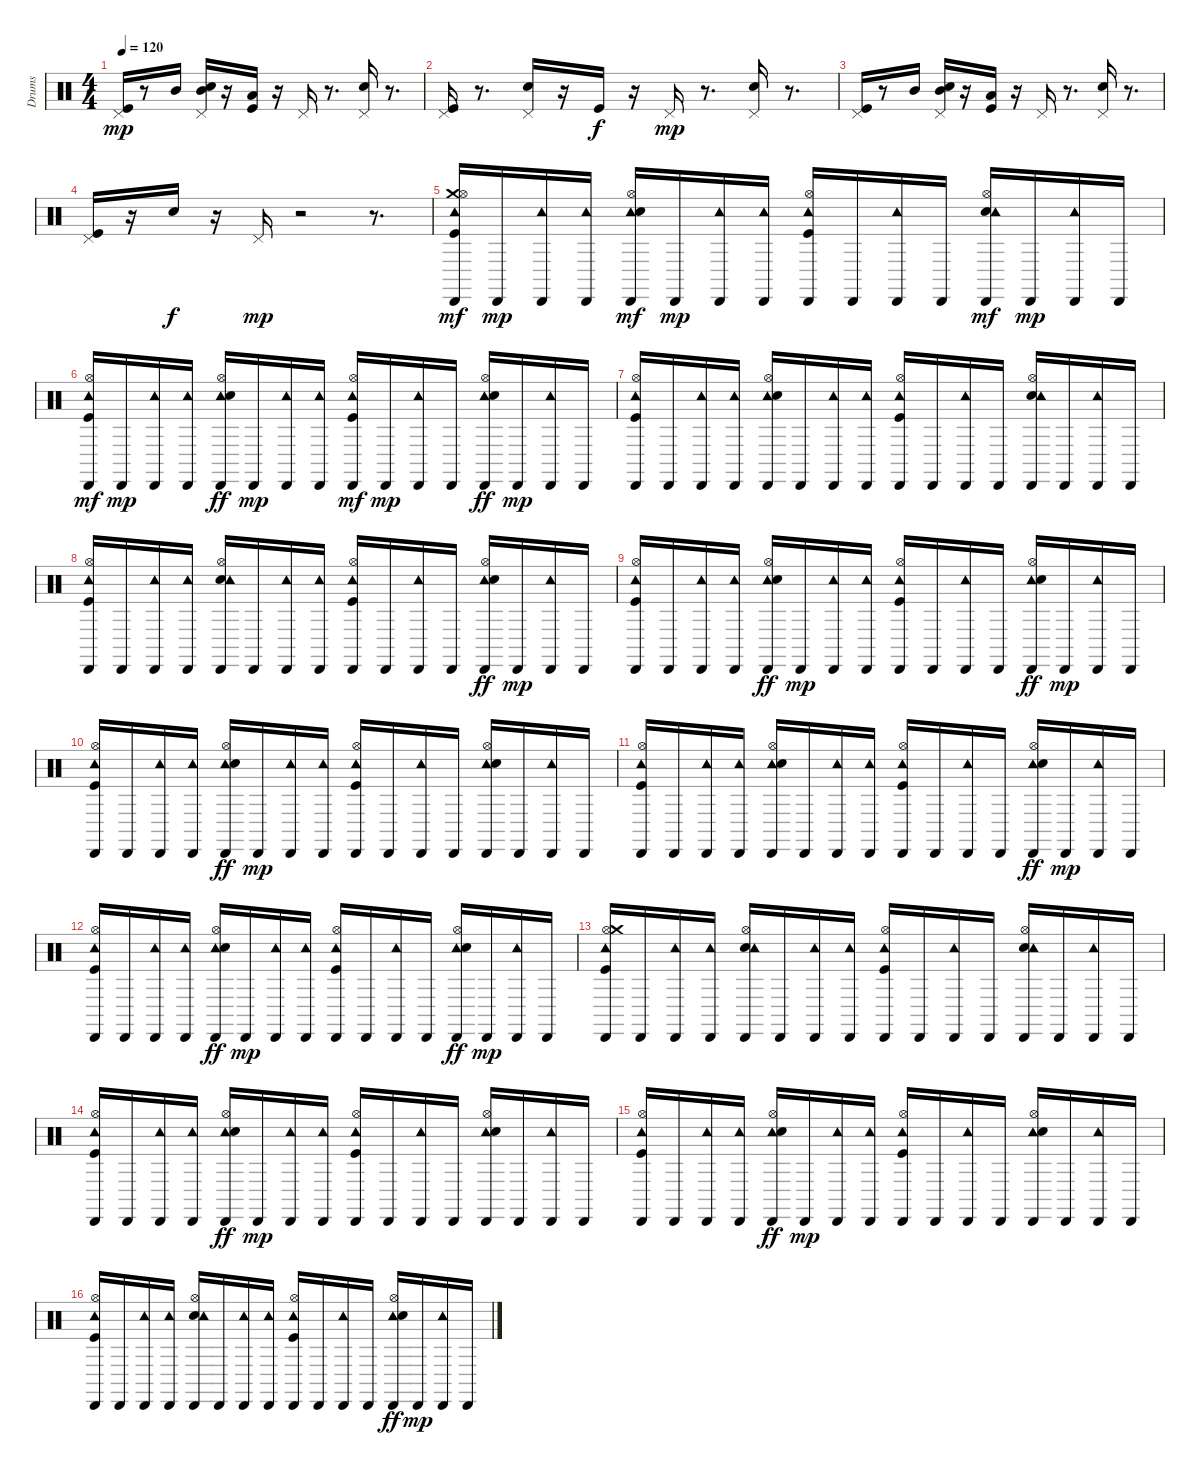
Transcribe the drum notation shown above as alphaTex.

\track ("Drums" "Drums") {instrument percussion}
\staff {score}
\articulation defaults
\ts (4 4)
\tempo 120
\clef neutral
\ks c
("Pedal Hi-Hat (hit)" "Kick (hit)").16{dy mp} r.8 "Mid Tom (hit)".16 ("Pedal Hi-Hat (hit)" "Hand Clap (hit)" "Mid Tom (hit)").16 r.16 ("Kick (hit)" "Low Floor Tom (hit)").16 r.16 "Pedal Hi-Hat (hit)".16 r.8{d} ("Pedal Hi-Hat (hit)" "Hand Clap (hit)").16 r.8{d} |
("Pedal Hi-Hat (hit)" "Kick (hit)").16 r.8{d} ("Pedal Hi-Hat (hit)" "Hand Clap (hit)").16 r.16 "Kick (hit)".16{dy f} r.16 "Pedal Hi-Hat (hit)".16{dy mp} r.8{d} ("Pedal Hi-Hat (hit)" "Hand Clap (hit)").16 r.8{d} |
("Pedal Hi-Hat (hit)" "Kick (hit)").16 r.8 "Mid Tom (hit)".16 ("Pedal Hi-Hat (hit)" "Hand Clap (hit)" "Mid Tom (hit)").16 r.16 ("Kick (hit)" "Low Floor Tom (hit)").16 r.16 "Pedal Hi-Hat (hit)".16 r.8{d} ("Pedal Hi-Hat (hit)" "Hand Clap (hit)").16 r.8{d} |
("Pedal Hi-Hat (hit)" "Kick (hit)").16 r.16 "Hand Clap (hit)".16{dy f} r.16 "Pedal Hi-Hat (hit)".16{dy mp} r.2 r.8{d} |
("Crash medium (hit)" "Tambourine (hit)" "Kick (hit)" "Cabasa (hit)" "Hi-Hat (open)").16{dy mf} "Cabasa (hit)".16{dy mp} ("Cabasa (hit)" "Tambourine (hit)").16 ("Cabasa (hit)" "Tambourine (hit)").16 ("Tambourine (hit)" "Electric Snare (hit)" "Cabasa (hit)" "Hi-Hat (open)").16{dy mf} "Cabasa (hit)".16{dy mp} ("Cabasa (hit)" "Tambourine (hit)").16 ("Tambourine (hit)" "Cabasa (hit)").16 ("Tambourine (hit)" "Hi-Hat (open)" "Cabasa (hit)" "Kick (hit)").16 "Cabasa (hit)".16 ("Cabasa (hit)" "Tambourine (hit)").16 "Cabasa (hit)".16 ("Cabasa (hit)" "Electric Snare (hit)" "Tambourine (hit)" "Hi-Hat (open)").16{dy mf} "Cabasa (hit)".16{dy mp} ("Cabasa (hit)" "Tambourine (hit)").16 "Cabasa (hit)".16 |
("Cabasa (hit)" "Kick (hit)" "Tambourine (hit)" "Hi-Hat (open)").16{dy mf} "Cabasa (hit)".16{dy mp} ("Cabasa (hit)" "Tambourine (hit)").16 ("Tambourine (hit)" "Cabasa (hit)").16 ("Cabasa (hit)" "Tambourine (hit)" "Hi-Hat (open)" "Electric Snare (hit)").16{dy ff} "Cabasa (hit)".16{dy mp} ("Tambourine (hit)" "Cabasa (hit)").16 ("Tambourine (hit)" "Cabasa (hit)").16 ("Cabasa (hit)" "Hi-Hat (open)" "Kick (hit)" "Tambourine (hit)").16{dy mf} "Cabasa (hit)".16{dy mp} ("Cabasa (hit)" "Tambourine (hit)").16 "Cabasa (hit)".16 ("Tambourine (hit)" "Cabasa (hit)" "Hi-Hat (open)" "Electric Snare (hit)").16{dy ff} "Cabasa (hit)".16{dy mp} ("Cabasa (hit)" "Tambourine (hit)").16 "Cabasa (hit)".16 |
("Tambourine (hit)" "Cabasa (hit)" "Hi-Hat (open)" "Kick (hit)").16 "Cabasa (hit)".16 ("Cabasa (hit)" "Tambourine (hit)").16 ("Cabasa (hit)" "Tambourine (hit)").16 ("Cabasa (hit)" "Tambourine (hit)" "Electric Snare (hit)" "Hi-Hat (open)").16 "Cabasa (hit)".16 ("Cabasa (hit)" "Tambourine (hit)").16 ("Tambourine (hit)" "Cabasa (hit)").16 ("Hi-Hat (open)" "Cabasa (hit)" "Tambourine (hit)" "Kick (hit)").16 "Cabasa (hit)".16 ("Cabasa (hit)" "Tambourine (hit)").16 "Cabasa (hit)".16 ("Electric Snare (hit)" "Hi-Hat (open)" "Cabasa (hit)" "Tambourine (hit)").16 "Cabasa (hit)".16 ("Cabasa (hit)" "Tambourine (hit)").16 "Cabasa (hit)".16 |
("Cabasa (hit)" "Hi-Hat (open)" "Kick (hit)" "Tambourine (hit)").16 "Cabasa (hit)".16 ("Cabasa (hit)" "Tambourine (hit)").16 ("Tambourine (hit)" "Cabasa (hit)").16 ("Hi-Hat (open)" "Electric Snare (hit)" "Cabasa (hit)" "Tambourine (hit)").16 "Cabasa (hit)".16 ("Tambourine (hit)" "Cabasa (hit)").16 ("Cabasa (hit)" "Tambourine (hit)").16 ("Hi-Hat (open)" "Cabasa (hit)" "Tambourine (hit)" "Kick (hit)").16 "Cabasa (hit)".16 ("Tambourine (hit)" "Cabasa (hit)").16 "Cabasa (hit)".16 ("Cabasa (hit)" "Tambourine (hit)" "Hi-Hat (open)" "Electric Snare (hit)").16{dy ff} "Cabasa (hit)".16{dy mp} ("Tambourine (hit)" "Cabasa (hit)").16 "Cabasa (hit)".16 |
("Hi-Hat (open)" "Tambourine (hit)" "Cabasa (hit)" "Kick (hit)").16 "Cabasa (hit)".16 ("Tambourine (hit)" "Cabasa (hit)").16 ("Tambourine (hit)" "Cabasa (hit)").16 ("Cabasa (hit)" "Hi-Hat (open)" "Tambourine (hit)" "Electric Snare (hit)").16{dy ff} "Cabasa (hit)".16{dy mp} ("Tambourine (hit)" "Cabasa (hit)").16 ("Tambourine (hit)" "Cabasa (hit)").16 ("Hi-Hat (open)" "Kick (hit)" "Cabasa (hit)" "Tambourine (hit)").16 "Cabasa (hit)".16 ("Tambourine (hit)" "Cabasa (hit)").16 "Cabasa (hit)".16 ("Hi-Hat (open)" "Cabasa (hit)" "Tambourine (hit)" "Electric Snare (hit)").16{dy ff} "Cabasa (hit)".16{dy mp} ("Cabasa (hit)" "Tambourine (hit)").16 "Cabasa (hit)".16 |
("Tambourine (hit)" "Kick (hit)" "Cabasa (hit)" "Hi-Hat (open)").16 "Cabasa (hit)".16 ("Tambourine (hit)" "Cabasa (hit)").16 ("Cabasa (hit)" "Tambourine (hit)").16 ("Cabasa (hit)" "Tambourine (hit)" "Hi-Hat (open)" "Electric Snare (hit)").16{dy ff} "Cabasa (hit)".16{dy mp} ("Cabasa (hit)" "Tambourine (hit)").16 ("Tambourine (hit)" "Cabasa (hit)").16 ("Cabasa (hit)" "Hi-Hat (open)" "Tambourine (hit)" "Kick (hit)").16 "Cabasa (hit)".16 ("Tambourine (hit)" "Cabasa (hit)").16 "Cabasa (hit)".16 ("Cabasa (hit)" "Tambourine (hit)" "Electric Snare (hit)" "Hi-Hat (open)").16 "Cabasa (hit)".16 ("Tambourine (hit)" "Cabasa (hit)").16 "Cabasa (hit)".16 |
("Tambourine (hit)" "Kick (hit)" "Cabasa (hit)" "Hi-Hat (open)").16 "Cabasa (hit)".16 ("Cabasa (hit)" "Tambourine (hit)").16 ("Tambourine (hit)" "Cabasa (hit)").16 ("Tambourine (hit)" "Electric Snare (hit)" "Cabasa (hit)" "Hi-Hat (open)").16 "Cabasa (hit)".16 ("Cabasa (hit)" "Tambourine (hit)").16 ("Tambourine (hit)" "Cabasa (hit)").16 ("Tambourine (hit)" "Cabasa (hit)" "Hi-Hat (open)" "Kick (hit)").16 "Cabasa (hit)".16 ("Cabasa (hit)" "Tambourine (hit)").16 "Cabasa (hit)".16 ("Tambourine (hit)" "Cabasa (hit)" "Hi-Hat (open)" "Electric Snare (hit)").16{dy ff} "Cabasa (hit)".16{dy mp} ("Cabasa (hit)" "Tambourine (hit)").16 "Cabasa (hit)".16 |
("Kick (hit)" "Hi-Hat (open)" "Cabasa (hit)" "Tambourine (hit)").16 "Cabasa (hit)".16 ("Tambourine (hit)" "Cabasa (hit)").16 ("Tambourine (hit)" "Cabasa (hit)").16 ("Cabasa (hit)" "Tambourine (hit)" "Hi-Hat (open)" "Electric Snare (hit)").16{dy ff} "Cabasa (hit)".16{dy mp} ("Cabasa (hit)" "Tambourine (hit)").16 ("Tambourine (hit)" "Cabasa (hit)").16 ("Cabasa (hit)" "Hi-Hat (open)" "Kick (hit)" "Tambourine (hit)").16 "Cabasa (hit)".16 ("Tambourine (hit)" "Cabasa (hit)").16 "Cabasa (hit)".16 ("Tambourine (hit)" "Cabasa (hit)" "Hi-Hat (open)" "Electric Snare (hit)").16{dy ff} "Cabasa (hit)".16{dy mp} ("Tambourine (hit)" "Cabasa (hit)").16 "Cabasa (hit)".16 |
("Kick (hit)" "Cabasa (hit)" "Hi-Hat (open)" "Tambourine (hit)" "Crash medium (hit)").16 "Cabasa (hit)".16 ("Tambourine (hit)" "Cabasa (hit)").16 ("Cabasa (hit)" "Tambourine (hit)").16 ("Hi-Hat (open)" "Electric Snare (hit)" "Cabasa (hit)" "Tambourine (hit)").16 "Cabasa (hit)".16 ("Cabasa (hit)" "Tambourine (hit)").16 ("Cabasa (hit)" "Tambourine (hit)").16 ("Hi-Hat (open)" "Cabasa (hit)" "Kick (hit)" "Tambourine (hit)").16 "Cabasa (hit)".16 ("Tambourine (hit)" "Cabasa (hit)").16 "Cabasa (hit)".16 ("Cabasa (hit)" "Electric Snare (hit)" "Hi-Hat (open)" "Tambourine (hit)").16 "Cabasa (hit)".16 ("Tambourine (hit)" "Cabasa (hit)").16 "Cabasa (hit)".16 |
("Hi-Hat (open)" "Tambourine (hit)" "Cabasa (hit)" "Kick (hit)").16 "Cabasa (hit)".16 ("Tambourine (hit)" "Cabasa (hit)").16 ("Tambourine (hit)" "Cabasa (hit)").16 ("Hi-Hat (open)" "Cabasa (hit)" "Tambourine (hit)" "Electric Snare (hit)").16{dy ff} "Cabasa (hit)".16{dy mp} ("Cabasa (hit)" "Tambourine (hit)").16 ("Cabasa (hit)" "Tambourine (hit)").16 ("Cabasa (hit)" "Tambourine (hit)" "Kick (hit)" "Hi-Hat (open)").16 "Cabasa (hit)".16 ("Tambourine (hit)" "Cabasa (hit)").16 "Cabasa (hit)".16 ("Tambourine (hit)" "Electric Snare (hit)" "Cabasa (hit)" "Hi-Hat (open)").16 "Cabasa (hit)".16 ("Tambourine (hit)" "Cabasa (hit)").16 "Cabasa (hit)".16 |
("Tambourine (hit)" "Kick (hit)" "Cabasa (hit)" "Hi-Hat (open)").16 "Cabasa (hit)".16 ("Cabasa (hit)" "Tambourine (hit)").16 ("Tambourine (hit)" "Cabasa (hit)").16 ("Tambourine (hit)" "Cabasa (hit)" "Hi-Hat (open)" "Electric Snare (hit)").16{dy ff} "Cabasa (hit)".16{dy mp} ("Tambourine (hit)" "Cabasa (hit)").16 ("Cabasa (hit)" "Tambourine (hit)").16 ("Cabasa (hit)" "Hi-Hat (open)" "Tambourine (hit)" "Kick (hit)").16 "Cabasa (hit)".16 ("Tambourine (hit)" "Cabasa (hit)").16 "Cabasa (hit)".16 ("Tambourine (hit)" "Cabasa (hit)" "Electric Snare (hit)" "Hi-Hat (open)").16 "Cabasa (hit)".16 ("Cabasa (hit)" "Tambourine (hit)").16 "Cabasa (hit)".16 |
("Cabasa (hit)" "Kick (hit)" "Tambourine (hit)" "Hi-Hat (open)").16 "Cabasa (hit)".16 ("Cabasa (hit)" "Tambourine (hit)").16 ("Cabasa (hit)" "Tambourine (hit)").16 ("Electric Snare (hit)" "Hi-Hat (open)" "Cabasa (hit)" "Tambourine (hit)").16 "Cabasa (hit)".16 ("Cabasa (hit)" "Tambourine (hit)").16 ("Tambourine (hit)" "Cabasa (hit)").16 ("Kick (hit)" "Cabasa (hit)" "Tambourine (hit)" "Hi-Hat (open)").16 "Cabasa (hit)".16 ("Cabasa (hit)" "Tambourine (hit)").16 "Cabasa (hit)".16 ("Hi-Hat (open)" "Cabasa (hit)" "Tambourine (hit)" "Electric Snare (hit)").16{dy ff} "Cabasa (hit)".16{dy mp} ("Tambourine (hit)" "Cabasa (hit)").16 "Cabasa (hit)".16
